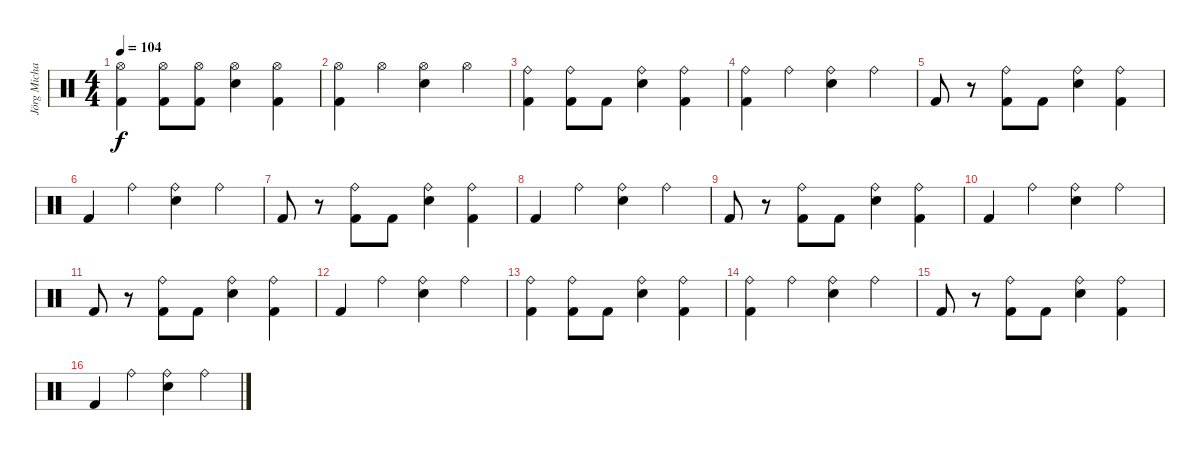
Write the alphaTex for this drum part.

\track ("Jörg Michael" "Jörg Micha") {instrument percussion}
\staff {score}
\articulation defaults
\ts (4 4)
\tempo 104
\clef neutral
\ks c
("Kick (hit) 2" "Hi-Hat (open)").4{dy f} ("Kick (hit) 2" "Hi-Hat (open)").8 ("Kick (hit) 2" "Hi-Hat (open)").8 ("Snare (hit) 2" "Hi-Hat (open)").4 ("Kick (hit) 2" "Hi-Hat (open)").4 |
("Kick (hit) 2" "Hi-Hat (open)").4 "Hi-Hat (open)".4 ("Snare (hit) 2" "Hi-Hat (open)").4 "Hi-Hat (open)".4 |
("Kick (hit) 2" "Ride (bell)").4 ("Kick (hit) 2" "Ride (bell)").8 "Kick (hit) 2".8 ("Snare (hit) 2" "Ride (bell)").4 ("Kick (hit) 2" "Ride (bell)").4 |
("Kick (hit) 2" "Ride (bell)").4 "Ride (bell)".4 ("Snare (hit) 2" "Ride (bell)").4 "Ride (bell)".4 |
"Kick (hit) 2".8 r.8 ("Kick (hit) 2" "Ride (bell)").8 "Kick (hit) 2".8 ("Snare (hit) 2" "Ride (bell)").4 ("Kick (hit) 2" "Ride (bell)").4 |
"Kick (hit) 2".4 "Ride (bell)".4 ("Snare (hit) 2" "Ride (bell)").4 "Ride (bell)".4 |
"Kick (hit) 2".8 r.8 ("Kick (hit) 2" "Ride (bell)").8 "Kick (hit) 2".8 ("Snare (hit) 2" "Ride (bell)").4 ("Kick (hit) 2" "Ride (bell)").4 |
"Kick (hit) 2".4 "Ride (bell)".4 ("Snare (hit) 2" "Ride (bell)").4 "Ride (bell)".4 |
"Kick (hit) 2".8 r.8 ("Kick (hit) 2" "Ride (bell)").8 "Kick (hit) 2".8 ("Snare (hit) 2" "Ride (bell)").4 ("Kick (hit) 2" "Ride (bell)").4 |
"Kick (hit) 2".4 "Ride (bell)".4 ("Snare (hit) 2" "Ride (bell)").4 "Ride (bell)".4 |
"Kick (hit) 2".8 r.8 ("Kick (hit) 2" "Ride (bell)").8 "Kick (hit) 2".8 ("Snare (hit) 2" "Ride (bell)").4 ("Kick (hit) 2" "Ride (bell)").4 |
"Kick (hit) 2".4 "Ride (bell)".4 ("Snare (hit) 2" "Ride (bell)").4 "Ride (bell)".4 |
("Ride (bell)" "Kick (hit) 2").4 ("Kick (hit) 2" "Ride (bell)").8 "Kick (hit) 2".8 ("Snare (hit) 2" "Ride (bell)").4 ("Kick (hit) 2" "Ride (bell)").4 |
("Ride (bell)" "Kick (hit) 2").4 "Ride (bell)".4 ("Snare (hit) 2" "Ride (bell)").4 "Ride (bell)".4 |
"Kick (hit) 2".8 r.8 ("Kick (hit) 2" "Ride (bell)").8 "Kick (hit) 2".8 ("Snare (hit) 2" "Ride (bell)").4 ("Kick (hit) 2" "Ride (bell)").4 |
"Kick (hit) 2".4 "Ride (bell)".4 ("Snare (hit) 2" "Ride (bell)").4 "Ride (bell)".4
